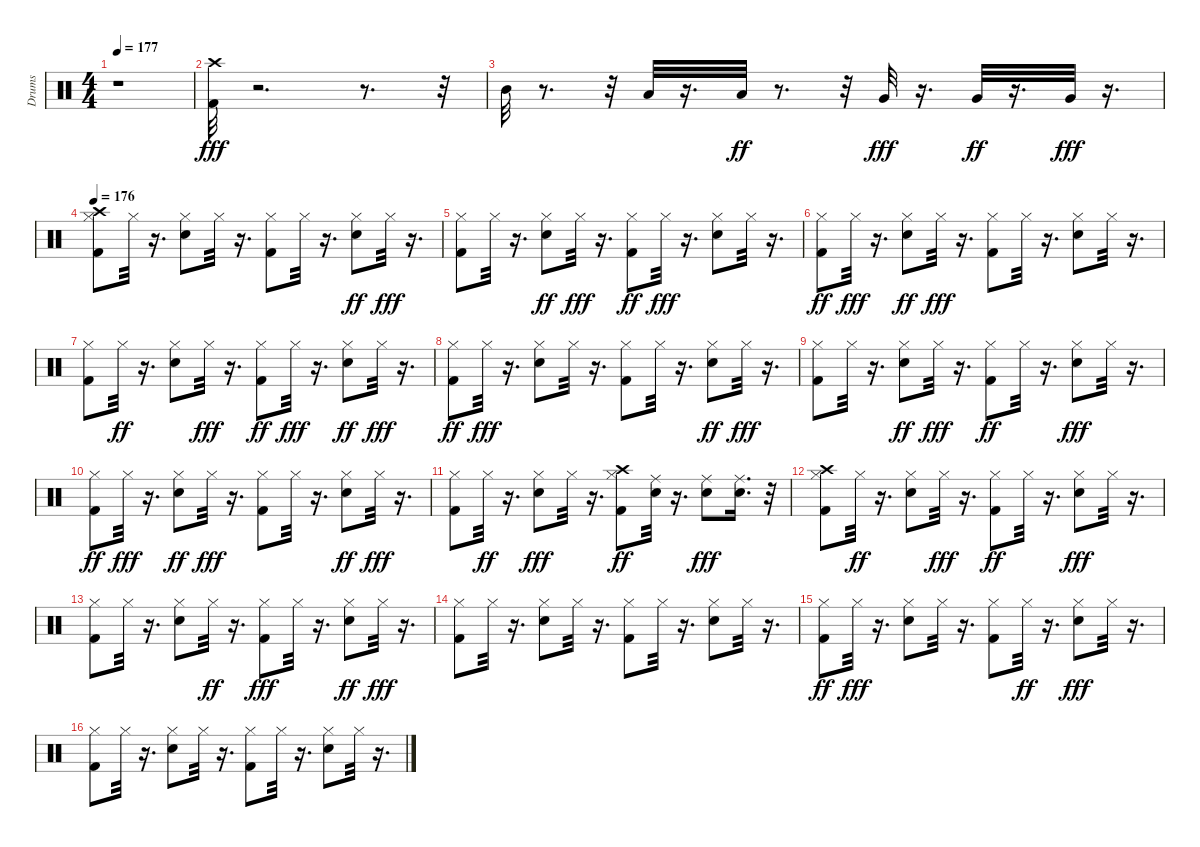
\track ("Drums" "Drums") {instrument percussion}
\staff {score}
\articulation defaults
\ts (4 4)
\tempo 177
\clef neutral
\ks c
r.1{dy fff} |
("Kick (hit) 2" "Crash high (hit)").32 r.2{d} r.8{d} r.32 |
"Mid Tom (hit)".32 r.8{d} r.32 "Low Tom (hit)".32 r.16{d} "Low Tom (hit)".32{dy ff} r.8{d} r.32 "Very Low Tom (hit)".32{dy fff} r.16{d} "Very Low Tom (hit)".32{dy ff} r.16{d} "Very Low Tom (hit)".32{dy fff} r.16{d} |
\tempo 176
("Kick (hit) 2" "Hi-Hat (closed)" "Crash high (hit)").8 "Hi-Hat (closed)".32 r.16{d} ("Electric Snare (hit)" "Hi-Hat (closed)").8 "Hi-Hat (closed)".32 r.16{d} ("Hi-Hat (closed)" "Kick (hit) 2").8 "Hi-Hat (closed)".32 r.16{d} ("Hi-Hat (closed)" "Electric Snare (hit)").8{dy ff} "Hi-Hat (closed)".32{dy fff} r.16{d} |
("Kick (hit) 2" "Hi-Hat (closed)").8 "Hi-Hat (closed)".32 r.16{d} ("Hi-Hat (closed)" "Electric Snare (hit)").8{dy ff} "Hi-Hat (closed)".32{dy fff} r.16{d} ("Hi-Hat (closed)" "Kick (hit) 2").8{dy ff} "Hi-Hat (closed)".32{dy fff} r.16{d} ("Hi-Hat (closed)" "Electric Snare (hit)").8 "Hi-Hat (closed)".32 r.16{d} |
("Kick (hit) 2" "Hi-Hat (closed)").8{dy ff} "Hi-Hat (closed)".32{dy fff} r.16{d} ("Electric Snare (hit)" "Hi-Hat (closed)").8{dy ff} "Hi-Hat (closed)".32{dy fff} r.16{d} ("Kick (hit) 2" "Hi-Hat (closed)").8 "Hi-Hat (closed)".32 r.16{d} ("Electric Snare (hit)" "Hi-Hat (closed)").8 "Hi-Hat (closed)".32 r.16{d} |
("Kick (hit) 2" "Hi-Hat (closed)").8 "Hi-Hat (closed)".32{dy ff} r.16{d} ("Hi-Hat (closed)" "Electric Snare (hit)").8 "Hi-Hat (closed)".32{dy fff} r.16{d} ("Hi-Hat (closed)" "Kick (hit) 2").8{dy ff} "Hi-Hat (closed)".32{dy fff} r.16{d} ("Electric Snare (hit)" "Hi-Hat (closed)").8{dy ff} "Hi-Hat (closed)".32{dy fff} r.16{d} |
("Hi-Hat (closed)" "Kick (hit) 2").8{dy ff} "Hi-Hat (closed)".32{dy fff} r.16{d} ("Electric Snare (hit)" "Hi-Hat (closed)").8 "Hi-Hat (closed)".32 r.16{d} ("Kick (hit) 2" "Hi-Hat (closed)").8 "Hi-Hat (closed)".32 r.16{d} ("Hi-Hat (closed)" "Electric Snare (hit)").8{dy ff} "Hi-Hat (closed)".32{dy fff} r.16{d} |
("Kick (hit) 2" "Hi-Hat (closed)").8 "Hi-Hat (closed)".32 r.16{d} ("Hi-Hat (closed)" "Electric Snare (hit)").8{dy ff} "Hi-Hat (closed)".32{dy fff} r.16{d} ("Kick (hit) 2" "Hi-Hat (closed)").8{dy ff} "Hi-Hat (closed)".32 r.16{d} ("Electric Snare (hit)" "Hi-Hat (closed)").8{dy fff} "Hi-Hat (closed)".32 r.16{d} |
("Hi-Hat (closed)" "Kick (hit) 2").8{dy ff} "Hi-Hat (closed)".32{dy fff} r.16{d} ("Hi-Hat (closed)" "Electric Snare (hit)").8{dy ff} "Hi-Hat (closed)".32{dy fff} r.16{d} ("Hi-Hat (closed)" "Kick (hit) 2").8 "Hi-Hat (closed)".32 r.16{d} ("Electric Snare (hit)" "Hi-Hat (closed)").8{dy ff} "Hi-Hat (closed)".32{dy fff} r.16{d} |
("Kick (hit) 2" "Hi-Hat (closed)").8 "Hi-Hat (closed)".32{dy ff} r.16{d} ("Electric Snare (hit)" "Hi-Hat (closed)").8{dy fff} "Hi-Hat (closed)".32 r.16{d} ("Crash high (hit)" "Hi-Hat (closed)" "Kick (hit) 2").8{dy ff} ("Ride (middle)" "Electric Snare (hit)").32 r.16{d} ("Electric Snare (hit)" "Ride (middle)").8{dy fff} ("Ride (middle)" "Electric Snare (hit)").16{d} r.32 |
("Kick (hit) 2" "Crash high (hit)" "Hi-Hat (closed)").8 "Hi-Hat (closed)".32{dy ff} r.16{d} ("Hi-Hat (closed)" "Electric Snare (hit)").8 "Hi-Hat (closed)".32{dy fff} r.16{d} ("Hi-Hat (closed)" "Kick (hit) 2").8{dy ff} "Hi-Hat (closed)".32 r.16{d} ("Hi-Hat (closed)" "Electric Snare (hit)").8{dy fff} "Hi-Hat (closed)".32 r.16{d} |
("Kick (hit) 2" "Hi-Hat (closed)").8 "Hi-Hat (closed)".32 r.16{d} ("Hi-Hat (closed)" "Electric Snare (hit)").8 "Hi-Hat (closed)".32{dy ff} r.16{d} ("Kick (hit) 2" "Hi-Hat (closed)").8{dy fff} "Hi-Hat (closed)".32 r.16{d} ("Electric Snare (hit)" "Hi-Hat (closed)").8{dy ff} "Hi-Hat (closed)".32{dy fff} r.16{d} |
("Kick (hit) 2" "Hi-Hat (closed)").8 "Hi-Hat (closed)".32 r.16{d} ("Electric Snare (hit)" "Hi-Hat (closed)").8 "Hi-Hat (closed)".32 r.16{d} ("Kick (hit) 2" "Hi-Hat (closed)").8 "Hi-Hat (closed)".32 r.16{d} ("Electric Snare (hit)" "Hi-Hat (closed)").8 "Hi-Hat (closed)".32 r.16{d} |
("Hi-Hat (closed)" "Kick (hit) 2").8{dy ff} "Hi-Hat (closed)".32{dy fff} r.16{d} ("Hi-Hat (closed)" "Electric Snare (hit)").8 "Hi-Hat (closed)".32 r.16{d} ("Hi-Hat (closed)" "Kick (hit) 2").8 "Hi-Hat (closed)".32{dy ff} r.16{d} ("Hi-Hat (closed)" "Electric Snare (hit)").8{dy fff} "Hi-Hat (closed)".32 r.16{d} |
("Kick (hit) 2" "Hi-Hat (closed)").8 "Hi-Hat (closed)".32 r.16{d} ("Electric Snare (hit)" "Hi-Hat (closed)").8 "Hi-Hat (closed)".32 r.16{d} ("Kick (hit) 2" "Hi-Hat (closed)").8 "Hi-Hat (closed)".32 r.16{d} ("Electric Snare (hit)" "Hi-Hat (closed)").8 "Hi-Hat (closed)".32 r.16{d}
